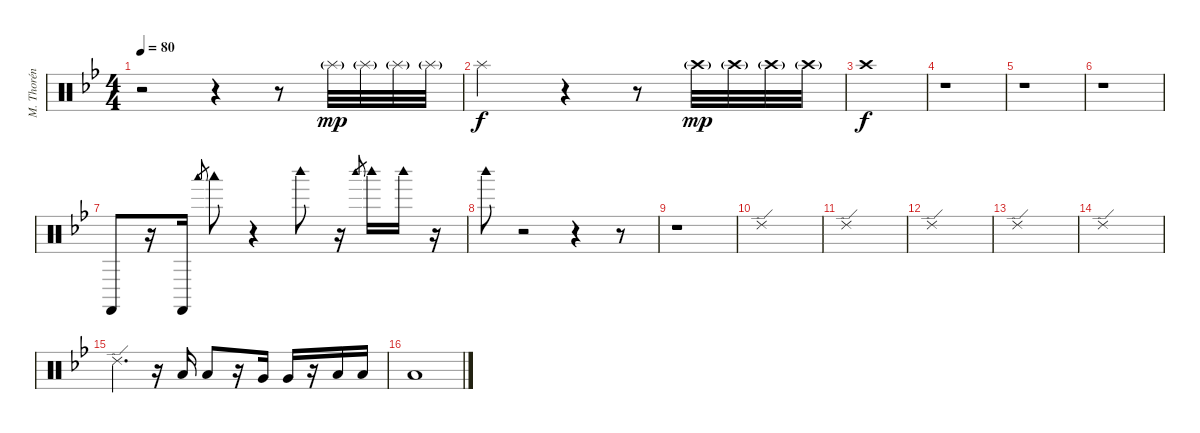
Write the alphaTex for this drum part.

\track ("M. Thorén (Drums)" "M. Thorén ") {instrument percussion}
\staff {score}
\articulation defaults
\ts (4 4)
\tempo 80
\clef neutral
\ks gminor
r.2{dy f} r.4 r.8 "Splash (hit)"{g}.32{dy mp} "Splash (hit)"{g}.32 "Splash (hit)"{g}.32 "Splash (hit)"{g}.32 |
"Splash (hit)".2{dy f} r.4 r.8 "Crash high (hit)"{g}.32{dy mp} "Crash high (hit)"{g}.32 "Crash high (hit)"{g}.32 "Crash high (hit)"{g}.32 |
"Crash high (hit)".1{dy f} |
r.1 |
r.1 |
r.1 |
"Castanets (hit)".8 r.16 "Castanets (hit)".16 "Woodblock low (hit)".8{gr} "Woodblock low (hit)".8 r.4 "Woodblock high (hit)".8 r.16 "Woodblock high (hit)".8{gr} "Woodblock high (hit)".16 "Woodblock high (hit)".16 r.16 |
"Woodblock high (hit)".8 r.2 r.4 r.8 |
r.1 |
"Ride (edge) 2".1 |
"Ride (edge) 2".1 |
"Ride (edge) 2".1 |
"Ride (edge) 2".1 |
"Ride (edge) 2".1 |
"Ride (edge) 2".4{d} r.16 "Low Tom (hit)".16 "Low Tom (hit)".8 r.16 "Very Low Tom (hit)".16 "Very Low Tom (hit)".16 r.16 "Low Floor Tom (hit)".16 "Low Floor Tom (hit)".16 |
"Low Floor Tom (hit)".1
